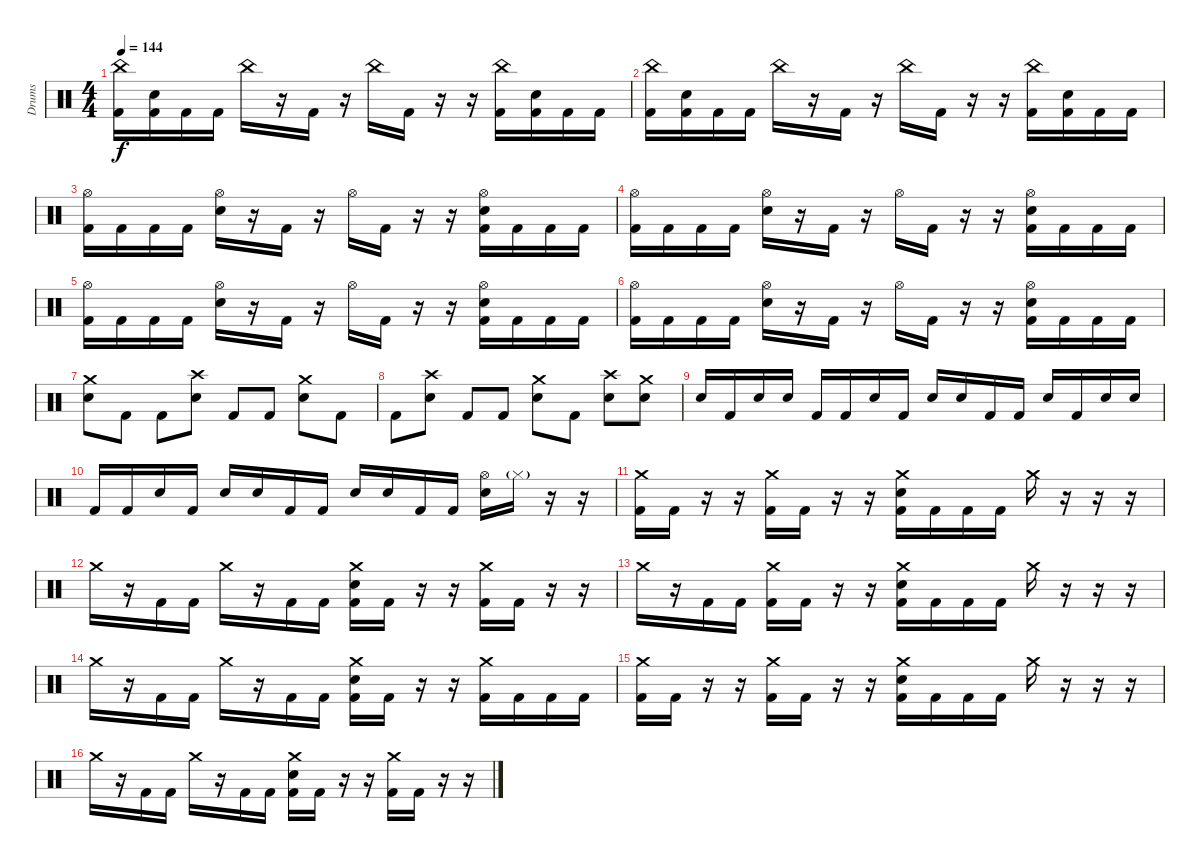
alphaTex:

\track ("Drums" "Drums") {instrument percussion}
\staff {score}
\articulation defaults
\ts (4 4)
\tempo 144
\clef neutral
\ks c
("China (hit)" "Kick (hit) 2").16{dy f} ("Electric Snare (hit)" "Kick (hit) 2").16 "Kick (hit) 2".16 "Kick (hit) 2".16 "China (hit)".16 r.16 "Kick (hit) 2".16 r.16 "China (hit)".16 "Kick (hit) 2".16 r.16 r.16 ("China (hit)" "Kick (hit) 2").16 ("Electric Snare (hit)" "Kick (hit) 2").16 "Kick (hit) 2".16 "Kick (hit) 2".16 |
("China (hit)" "Kick (hit) 2").16 ("Electric Snare (hit)" "Kick (hit) 2").16 "Kick (hit) 2".16 "Kick (hit) 2".16 "China (hit)".16 r.16 "Kick (hit) 2".16 r.16 "China (hit)".16 "Kick (hit) 2".16 r.16 r.16 ("China (hit)" "Kick (hit) 2").16 ("Electric Snare (hit)" "Kick (hit) 2").16 "Kick (hit) 2".16 "Kick (hit) 2".16 |
("Hi-Hat (open)" "Kick (hit) 2").16 "Kick (hit) 2".16 "Kick (hit) 2".16 "Kick (hit) 2".16 ("Hi-Hat (open)" "Electric Snare (hit)").16 r.16 "Kick (hit) 2".16 r.16 "Hi-Hat (open)".16 "Kick (hit) 2".16 r.16 r.16 ("Hi-Hat (open)" "Electric Snare (hit)" "Kick (hit) 2").16 "Kick (hit) 2".16 "Kick (hit) 2".16 "Kick (hit) 2".16 |
("Hi-Hat (open)" "Kick (hit) 2").16 "Kick (hit) 2".16 "Kick (hit) 2".16 "Kick (hit) 2".16 ("Hi-Hat (open)" "Electric Snare (hit)").16 r.16 "Kick (hit) 2".16 r.16 "Hi-Hat (open)".16 "Kick (hit) 2".16 r.16 r.16 ("Hi-Hat (open)" "Electric Snare (hit)" "Kick (hit) 2").16 "Kick (hit) 2".16 "Kick (hit) 2".16 "Kick (hit) 2".16 |
("Hi-Hat (open)" "Kick (hit) 2").16 "Kick (hit) 2".16 "Kick (hit) 2".16 "Kick (hit) 2".16 ("Hi-Hat (open)" "Electric Snare (hit)").16 r.16 "Kick (hit) 2".16 r.16 "Hi-Hat (open)".16 "Kick (hit) 2".16 r.16 r.16 ("Hi-Hat (open)" "Electric Snare (hit)" "Kick (hit) 2").16 "Kick (hit) 2".16 "Kick (hit) 2".16 "Kick (hit) 2".16 |
("Hi-Hat (open)" "Kick (hit) 2").16 "Kick (hit) 2".16 "Kick (hit) 2".16 "Kick (hit) 2".16 ("Hi-Hat (open)" "Electric Snare (hit)").16 r.16 "Kick (hit) 2".16 r.16 "Hi-Hat (open)".16 "Kick (hit) 2".16 r.16 r.16 ("Hi-Hat (open)" "Electric Snare (hit)" "Kick (hit) 2").16 "Kick (hit) 2".16 "Kick (hit) 2".16 "Kick (hit) 2".16 |
("Crash medium (hit)" "Electric Snare (hit)").8 "Kick (hit) 2".8 "Kick (hit) 2".8 ("Crash high (hit)" "Electric Snare (hit)").8 "Kick (hit) 2".8 "Kick (hit) 2".8 ("Crash medium (hit)" "Electric Snare (hit)").8 "Kick (hit) 2".8 |
"Kick (hit) 2".8 ("Crash high (hit)" "Electric Snare (hit)").8 "Kick (hit) 2".8 "Kick (hit) 2".8 ("Crash medium (hit)" "Electric Snare (hit)").8 "Kick (hit) 2".8 ("Crash high (hit)" "Electric Snare (hit)").8 ("Crash medium (hit)" "Electric Snare (hit)").8 |
"Electric Snare (hit)".16 "Kick (hit) 2".16 "Electric Snare (hit)".16 "Electric Snare (hit)".16 "Kick (hit) 2".16 "Kick (hit) 2".16 "Electric Snare (hit)".16 "Kick (hit) 2".16 "Electric Snare (hit)".16 "Electric Snare (hit)".16 "Kick (hit) 2".16 "Kick (hit) 2".16 "Electric Snare (hit)".16 "Kick (hit) 2".16 "Electric Snare (hit)".16 "Electric Snare (hit)".16 |
"Kick (hit) 2".16 "Kick (hit) 2".16 "Electric Snare (hit)".16 "Kick (hit) 2".16 "Electric Snare (hit)".16 "Electric Snare (hit)".16 "Kick (hit) 2".16 "Kick (hit) 2".16 "Electric Snare (hit)".16 "Electric Snare (hit)".16 "Kick (hit) 2".16 "Kick (hit) 2".16 ("Hi-Hat (open)" "Electric Snare (hit)").16 "Hi-Hat (closed)"{g}.16 r.16 r.16 |
("Crash medium (hit)" "Kick (hit) 2").16 "Kick (hit) 2".16 r.16 r.16 ("Crash medium (hit)" "Kick (hit) 2").16 "Kick (hit) 2".16 r.16 r.16 ("Crash medium (hit)" "Electric Snare (hit)" "Kick (hit) 2").16 "Kick (hit) 2".16 "Kick (hit) 2".16 "Kick (hit) 2".16 "Crash medium (hit)".16 r.16 r.16 r.16 |
"Crash medium (hit)".16 r.16 "Kick (hit) 2".16 "Kick (hit) 2".16 "Crash medium (hit)".16 r.16 "Kick (hit) 2".16 "Kick (hit) 2".16 ("Crash medium (hit)" "Electric Snare (hit)" "Kick (hit) 2").16 "Kick (hit) 2".16 r.16 r.16 ("Crash medium (hit)" "Kick (hit) 2").16 "Kick (hit) 2".16 r.16 r.16 |
"Crash medium (hit)".16 r.16 "Kick (hit) 2".16 "Kick (hit) 2".16 ("Crash medium (hit)" "Kick (hit) 2").16 "Kick (hit) 2".16 r.16 r.16 ("Crash medium (hit)" "Electric Snare (hit)" "Kick (hit) 2").16 "Kick (hit) 2".16 "Kick (hit) 2".16 "Kick (hit) 2".16 "Crash medium (hit)".16 r.16 r.16 r.16 |
"Crash medium (hit)".16 r.16 "Kick (hit) 2".16 "Kick (hit) 2".16 "Crash medium (hit)".16 r.16 "Kick (hit) 2".16 "Kick (hit) 2".16 ("Crash medium (hit)" "Electric Snare (hit)" "Kick (hit) 2").16 "Kick (hit) 2".16 r.16 r.16 ("Crash medium (hit)" "Kick (hit) 2").16 "Kick (hit) 2".16 "Kick (hit) 2".16 "Kick (hit) 2".16 |
("Crash medium (hit)" "Kick (hit) 2").16 "Kick (hit) 2".16 r.16 r.16 ("Crash medium (hit)" "Kick (hit) 2").16 "Kick (hit) 2".16 r.16 r.16 ("Crash medium (hit)" "Electric Snare (hit)" "Kick (hit) 2").16 "Kick (hit) 2".16 "Kick (hit) 2".16 "Kick (hit) 2".16 "Crash medium (hit)".16 r.16 r.16 r.16 |
"Crash medium (hit)".16 r.16 "Kick (hit) 2".16 "Kick (hit) 2".16 "Crash medium (hit)".16 r.16 "Kick (hit) 2".16 "Kick (hit) 2".16 ("Crash medium (hit)" "Electric Snare (hit)" "Kick (hit) 2").16 "Kick (hit) 2".16 r.16 r.16 ("Crash medium (hit)" "Kick (hit) 2").16 "Kick (hit) 2".16 r.16 r.16
